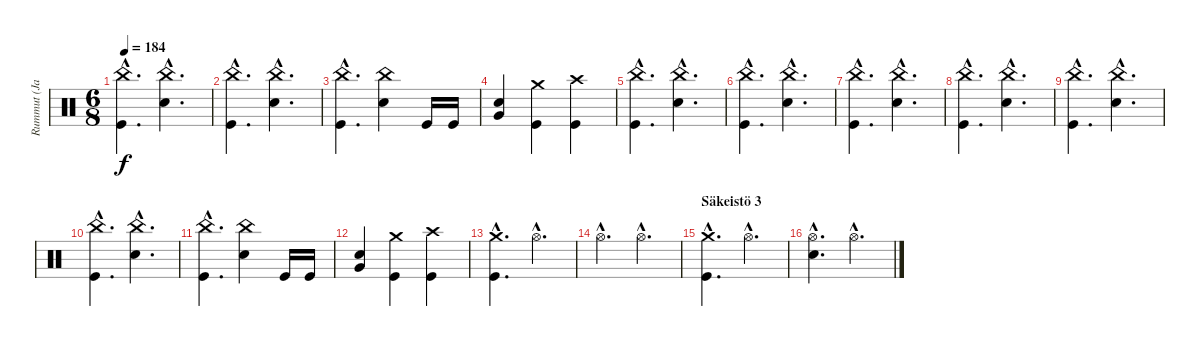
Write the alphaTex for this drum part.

\track ("Rummut (Janne)" "Rummut (Ja") {instrument percussion}
\staff {score}
\articulation defaults
\ts (6 8)
\tempo 184
\clef neutral
\ks c
("China (hit)"{hac} "Kick (hit)"{hac}).4{d dy f} ("China (hit)"{hac} "Snare (hit) 2"{hac}).4{d} |
("China (hit)"{hac} "Kick (hit)"{hac}).4{d} ("China (hit)"{hac} "Snare (hit) 2"{hac}).4{d} |
("China (hit)"{hac} "Kick (hit)"{hac}).4{d} ("China (hit)" "Snare (hit) 2").4 "Kick (hit)".16 "Kick (hit)".16 |
("Snare (hit) 2" "Very Low Tom (hit)").4 ("Crash medium (hit)" "Kick (hit)").4 ("Crash high (hit)" "Kick (hit)").4 |
("China (hit)"{hac} "Kick (hit)"{hac}).4{d} ("China (hit)"{hac} "Snare (hit) 2"{hac}).4{d} |
("China (hit)"{hac} "Kick (hit)"{hac}).4{d} ("China (hit)"{hac} "Snare (hit) 2"{hac}).4{d} |
("China (hit)"{hac} "Kick (hit)"{hac}).4{d} ("China (hit)"{hac} "Snare (hit) 2"{hac}).4{d} |
("China (hit)"{hac} "Kick (hit)"{hac}).4{d} ("China (hit)"{hac} "Snare (hit) 2"{hac}).4{d} |
("China (hit)"{hac} "Kick (hit)"{hac}).4{d} ("China (hit)"{hac} "Snare (hit) 2"{hac}).4{d} |
("China (hit)"{hac} "Kick (hit)"{hac}).4{d} ("China (hit)"{hac} "Snare (hit) 2"{hac}).4{d} |
("China (hit)"{hac} "Kick (hit)"{hac}).4{d} ("China (hit)" "Snare (hit) 2").4 "Kick (hit)".16 "Kick (hit)".16 |
("Snare (hit) 2" "Very Low Tom (hit)").4 ("Crash medium (hit)" "Kick (hit)").4 ("Crash high (hit)" "Kick (hit)").4 |
("Crash medium (hit)"{hac} "Kick (hit)"{hac}).4{d} "Hi-Hat (open)"{hac}.4{d} |
"Hi-Hat (open)"{hac}.4{d} "Hi-Hat (open)"{hac}.4{d} |
\section ("" "Säkeistö 3")
("Crash medium (hit)"{hac} "Kick (hit)"{hac}).4{d} "Hi-Hat (open)"{hac}.4{d} |
("Hi-Hat (open)"{hac} "Snare (hit) 2"{hac}).4{d} "Hi-Hat (open)"{hac}.4{d}
